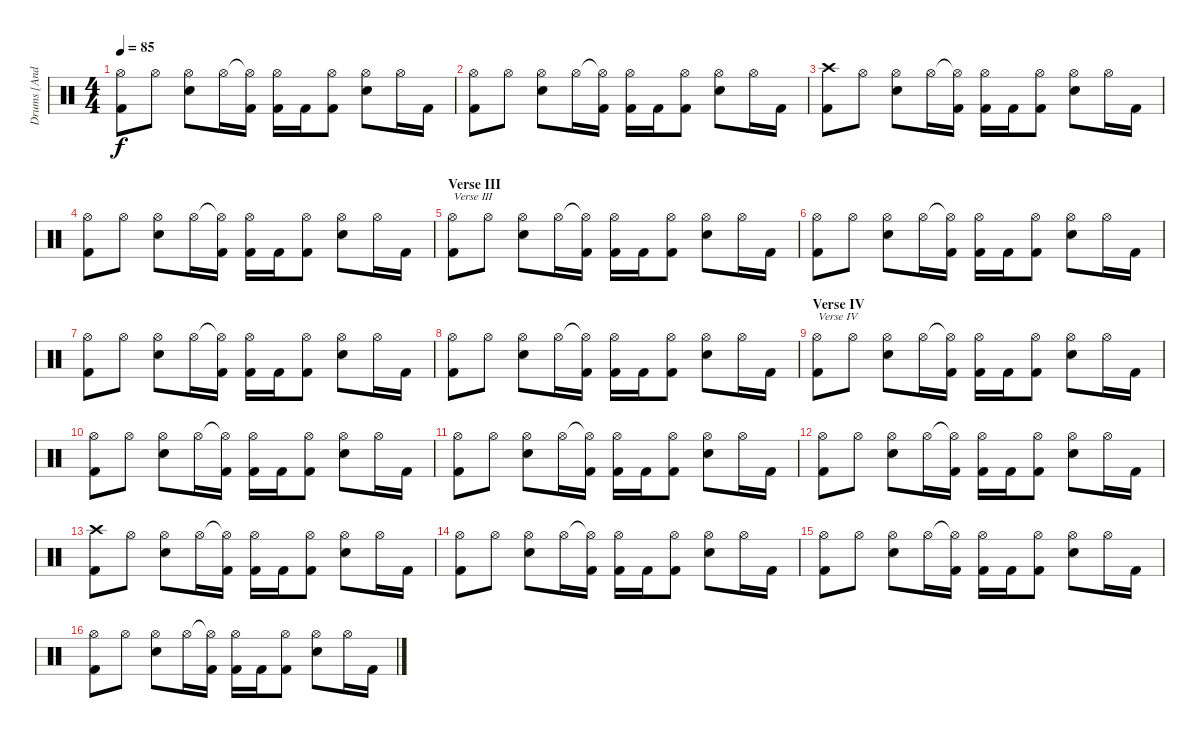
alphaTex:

\track ("Drums [Anders Kobro]" "Drums [And") {instrument percussion}
\staff {score}
\articulation defaults
\ts (4 4)
\tempo 85
\clef neutral
\ks c
("Hi-Hat (open)" "Kick (hit) 2").8{dy f} "Hi-Hat (open)".8 ("Hi-Hat (open)" "Electric Snare (hit)").8 "Hi-Hat (open)".16 ("Hi-Hat (open)"{t} "Kick (hit) 2").16 ("Hi-Hat (open)" "Kick (hit) 2").16 "Kick (hit) 2".16 ("Hi-Hat (open)" "Kick (hit) 2").8 ("Hi-Hat (open)" "Electric Snare (hit)").8 "Hi-Hat (open)".16 "Kick (hit) 2".16 |
("Hi-Hat (open)" "Kick (hit) 2").8 "Hi-Hat (open)".8 ("Hi-Hat (open)" "Electric Snare (hit)").8 "Hi-Hat (open)".16 ("Hi-Hat (open)"{t} "Kick (hit) 2").16 ("Hi-Hat (open)" "Kick (hit) 2").16 "Kick (hit) 2".16 ("Hi-Hat (open)" "Kick (hit) 2").8 ("Hi-Hat (open)" "Electric Snare (hit)").8 "Hi-Hat (open)".16 "Kick (hit) 2".16 |
("Crash high (hit)" "Kick (hit) 2").8 "Hi-Hat (open)".8 ("Hi-Hat (open)" "Electric Snare (hit)").8 "Hi-Hat (open)".16 ("Hi-Hat (open)"{t} "Kick (hit) 2").16 ("Hi-Hat (open)" "Kick (hit) 2").16 "Kick (hit) 2".16 ("Hi-Hat (open)" "Kick (hit) 2").8 ("Hi-Hat (open)" "Electric Snare (hit)").8 "Hi-Hat (open)".16 "Kick (hit) 2".16 |
("Hi-Hat (open)" "Kick (hit) 2").8 "Hi-Hat (open)".8 ("Hi-Hat (open)" "Electric Snare (hit)").8 "Hi-Hat (open)".16 ("Hi-Hat (open)"{t} "Kick (hit) 2").16 ("Hi-Hat (open)" "Kick (hit) 2").16 "Kick (hit) 2".16 ("Hi-Hat (open)" "Kick (hit) 2").8 ("Hi-Hat (open)" "Electric Snare (hit)").8 "Hi-Hat (open)".16 "Kick (hit) 2".16 |
\section ("" "Verse III")
("Hi-Hat (open)" "Kick (hit) 2").8{txt "Verse III"} "Hi-Hat (open)".8 ("Hi-Hat (open)" "Electric Snare (hit)").8 "Hi-Hat (open)".16 ("Hi-Hat (open)"{t} "Kick (hit) 2").16 ("Hi-Hat (open)" "Kick (hit) 2").16 "Kick (hit) 2".16 ("Hi-Hat (open)" "Kick (hit) 2").8 ("Hi-Hat (open)" "Electric Snare (hit)").8 "Hi-Hat (open)".16 "Kick (hit) 2".16 |
("Hi-Hat (open)" "Kick (hit) 2").8 "Hi-Hat (open)".8 ("Hi-Hat (open)" "Electric Snare (hit)").8 "Hi-Hat (open)".16 ("Hi-Hat (open)"{t} "Kick (hit) 2").16 ("Hi-Hat (open)" "Kick (hit) 2").16 "Kick (hit) 2".16 ("Hi-Hat (open)" "Kick (hit) 2").8 ("Hi-Hat (open)" "Electric Snare (hit)").8 "Hi-Hat (open)".16 "Kick (hit) 2".16 |
("Hi-Hat (open)" "Kick (hit) 2").8 "Hi-Hat (open)".8 ("Hi-Hat (open)" "Electric Snare (hit)").8 "Hi-Hat (open)".16 ("Hi-Hat (open)"{t} "Kick (hit) 2").16 ("Hi-Hat (open)" "Kick (hit) 2").16 "Kick (hit) 2".16 ("Hi-Hat (open)" "Kick (hit) 2").8 ("Hi-Hat (open)" "Electric Snare (hit)").8 "Hi-Hat (open)".16 "Kick (hit) 2".16 |
("Hi-Hat (open)" "Kick (hit) 2").8 "Hi-Hat (open)".8 ("Hi-Hat (open)" "Electric Snare (hit)").8 "Hi-Hat (open)".16 ("Hi-Hat (open)"{t} "Kick (hit) 2").16 ("Hi-Hat (open)" "Kick (hit) 2").16 "Kick (hit) 2".16 ("Hi-Hat (open)" "Kick (hit) 2").8 ("Hi-Hat (open)" "Electric Snare (hit)").8 "Hi-Hat (open)".16 "Kick (hit) 2".16 |
\section ("" "Verse IV")
("Hi-Hat (open)" "Kick (hit) 2").8{txt "Verse IV"} "Hi-Hat (open)".8 ("Hi-Hat (open)" "Electric Snare (hit)").8 "Hi-Hat (open)".16 ("Hi-Hat (open)"{t} "Kick (hit) 2").16 ("Hi-Hat (open)" "Kick (hit) 2").16 "Kick (hit) 2".16 ("Hi-Hat (open)" "Kick (hit) 2").8 ("Hi-Hat (open)" "Electric Snare (hit)").8 "Hi-Hat (open)".16 "Kick (hit) 2".16 |
("Hi-Hat (open)" "Kick (hit) 2").8 "Hi-Hat (open)".8 ("Hi-Hat (open)" "Electric Snare (hit)").8 "Hi-Hat (open)".16 ("Hi-Hat (open)"{t} "Kick (hit) 2").16 ("Hi-Hat (open)" "Kick (hit) 2").16 "Kick (hit) 2".16 ("Hi-Hat (open)" "Kick (hit) 2").8 ("Hi-Hat (open)" "Electric Snare (hit)").8 "Hi-Hat (open)".16 "Kick (hit) 2".16 |
("Hi-Hat (open)" "Kick (hit) 2").8 "Hi-Hat (open)".8 ("Hi-Hat (open)" "Electric Snare (hit)").8 "Hi-Hat (open)".16 ("Hi-Hat (open)"{t} "Kick (hit) 2").16 ("Hi-Hat (open)" "Kick (hit) 2").16 "Kick (hit) 2".16 ("Hi-Hat (open)" "Kick (hit) 2").8 ("Hi-Hat (open)" "Electric Snare (hit)").8 "Hi-Hat (open)".16 "Kick (hit) 2".16 |
("Hi-Hat (open)" "Kick (hit) 2").8 "Hi-Hat (open)".8 ("Hi-Hat (open)" "Electric Snare (hit)").8 "Hi-Hat (open)".16 ("Hi-Hat (open)"{t} "Kick (hit) 2").16 ("Hi-Hat (open)" "Kick (hit) 2").16 "Kick (hit) 2".16 ("Hi-Hat (open)" "Kick (hit) 2").8 ("Hi-Hat (open)" "Electric Snare (hit)").8 "Hi-Hat (open)".16 "Kick (hit) 2".16 |
("Crash high (hit)" "Kick (hit) 2").8 "Hi-Hat (open)".8 ("Hi-Hat (open)" "Electric Snare (hit)").8 "Hi-Hat (open)".16 ("Hi-Hat (open)"{t} "Kick (hit) 2").16 ("Hi-Hat (open)" "Kick (hit) 2").16 "Kick (hit) 2".16 ("Hi-Hat (open)" "Kick (hit) 2").8 ("Hi-Hat (open)" "Electric Snare (hit)").8 "Hi-Hat (open)".16 "Kick (hit) 2".16 |
("Hi-Hat (open)" "Kick (hit) 2").8 "Hi-Hat (open)".8 ("Hi-Hat (open)" "Electric Snare (hit)").8 "Hi-Hat (open)".16 ("Hi-Hat (open)"{t} "Kick (hit) 2").16 ("Hi-Hat (open)" "Kick (hit) 2").16 "Kick (hit) 2".16 ("Hi-Hat (open)" "Kick (hit) 2").8 ("Hi-Hat (open)" "Electric Snare (hit)").8 "Hi-Hat (open)".16 "Kick (hit) 2".16 |
("Hi-Hat (open)" "Kick (hit) 2").8 "Hi-Hat (open)".8 ("Hi-Hat (open)" "Electric Snare (hit)").8 "Hi-Hat (open)".16 ("Hi-Hat (open)"{t} "Kick (hit) 2").16 ("Hi-Hat (open)" "Kick (hit) 2").16 "Kick (hit) 2".16 ("Hi-Hat (open)" "Kick (hit) 2").8 ("Hi-Hat (open)" "Electric Snare (hit)").8 "Hi-Hat (open)".16 "Kick (hit) 2".16 |
("Hi-Hat (open)" "Kick (hit) 2").8 "Hi-Hat (open)".8 ("Hi-Hat (open)" "Electric Snare (hit)").8 "Hi-Hat (open)".16 ("Hi-Hat (open)"{t} "Kick (hit) 2").16 ("Hi-Hat (open)" "Kick (hit) 2").16 "Kick (hit) 2".16 ("Hi-Hat (open)" "Kick (hit) 2").8 ("Hi-Hat (open)" "Electric Snare (hit)").8 "Hi-Hat (open)".16 "Kick (hit) 2".16
